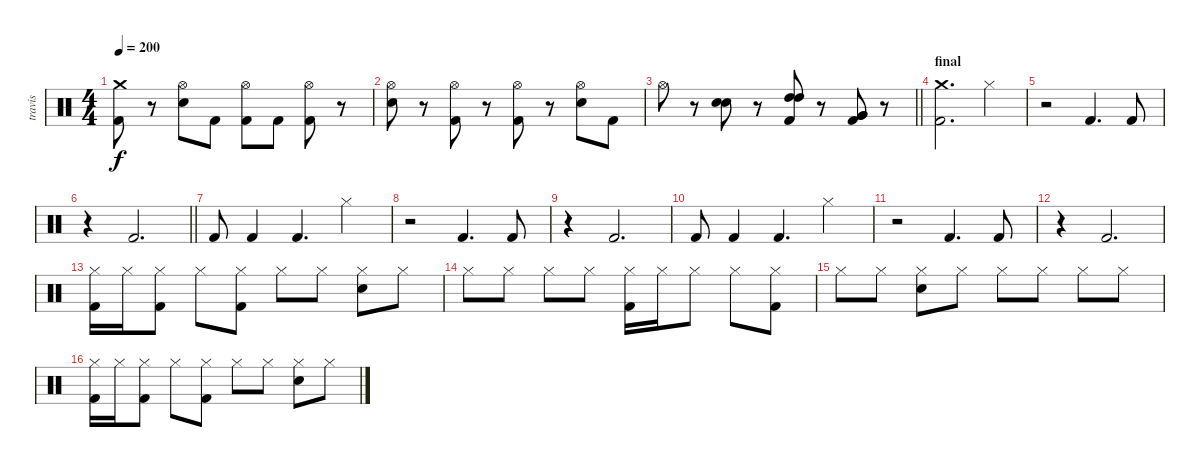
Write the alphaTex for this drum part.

\track ("travis" "travis") {instrument percussion}
\staff {score}
\articulation defaults
\ts (4 4)
\tempo 200
\clef neutral
\ks c
("Crash medium (hit)" "Kick (hit) 2").8{dy f} r.8 ("Hi-Hat (open)" "Electric Snare (hit)").8 "Kick (hit) 2".8 ("Hi-Hat (open)" "Kick (hit) 2").8 "Kick (hit) 2".8 ("Hi-Hat (open)" "Kick (hit) 2").8 r.8 |
("Hi-Hat (open)" "Electric Snare (hit)").8 r.8 ("Hi-Hat (open)" "Kick (hit) 2").8 r.8 ("Hi-Hat (open)" "Kick (hit) 2").8 r.8 ("Hi-Hat (open)" "Electric Snare (hit)").8 "Kick (hit) 2".8 |
\barLineRight lightlight "Hi-Hat (open)".8
r.8 ("Electric Snare (hit)" "Electric Snare (hit)").8 r.8 ("Kick (hit) 2" "High Tom (hit)" "High Tom (hit)").8 r.8 ("Kick (hit) 2" "Very Low Tom (hit)" "Very Low Tom (hit)").8 r.8 |
\section ("" "final")
("Crash medium (hit)" "Kick (hit) 2").2{d} "Hi-Hat (closed)".4 |
r.2 "Kick (hit) 2".4{d} "Kick (hit) 2".8 |
\barLineRight lightlight
r.4 "Kick (hit) 2".2{d} |
"Kick (hit) 2".8 "Kick (hit) 2".4 "Kick (hit) 2".4{d} "Hi-Hat (closed)".4 |
r.2 "Kick (hit) 2".4{d} "Kick (hit) 2".8 |
r.4 "Kick (hit) 2".2{d} |
"Kick (hit) 2".8 "Kick (hit) 2".4 "Kick (hit) 2".4{d} "Hi-Hat (closed)".4 |
r.2 "Kick (hit) 2".4{d} "Kick (hit) 2".8 |
r.4 "Kick (hit) 2".2{d} |
("Hi-Hat (closed)" "Kick (hit) 2").16 "Hi-Hat (closed)".16 ("Hi-Hat (closed)" "Kick (hit) 2").8 "Hi-Hat (closed)".8 ("Hi-Hat (closed)" "Kick (hit) 2").8 "Hi-Hat (closed)".8 "Hi-Hat (closed)".8 ("Hi-Hat (closed)" "Electric Snare (hit)").8 "Hi-Hat (closed)".8 |
"Hi-Hat (closed)".8 "Hi-Hat (closed)".8 "Hi-Hat (closed)".8 "Hi-Hat (closed)".8 ("Hi-Hat (closed)" "Kick (hit) 2").16 "Hi-Hat (closed)".16 "Hi-Hat (closed)".8 "Hi-Hat (closed)".8 ("Hi-Hat (closed)" "Kick (hit) 2").8 |
"Hi-Hat (closed)".8 "Hi-Hat (closed)".8 ("Hi-Hat (closed)" "Electric Snare (hit)").8 "Hi-Hat (closed)".8 "Hi-Hat (closed)".8 "Hi-Hat (closed)".8 "Hi-Hat (closed)".8 "Hi-Hat (closed)".8 |
("Hi-Hat (closed)" "Kick (hit) 2").16 "Hi-Hat (closed)".16 ("Hi-Hat (closed)" "Kick (hit) 2").8 "Hi-Hat (closed)".8 ("Hi-Hat (closed)" "Kick (hit) 2").8 "Hi-Hat (closed)".8 "Hi-Hat (closed)".8 ("Hi-Hat (closed)" "Electric Snare (hit)").8 "Hi-Hat (closed)".8
